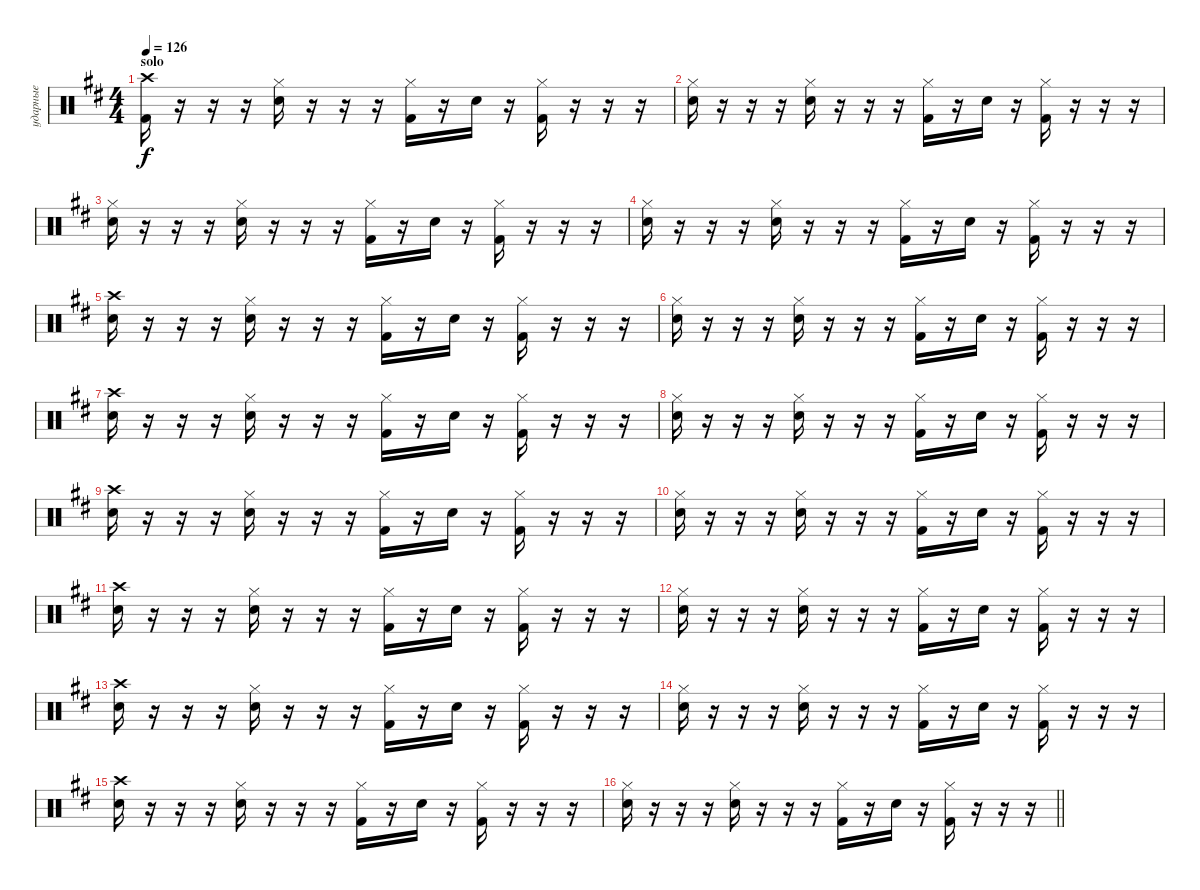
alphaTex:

\track ("ударные" "ударные") {instrument percussion}
\staff {score}
\articulation defaults
\ts (4 4)
\section ("" "solo")
\tempo 126
\clef neutral
\ks d
("Crash high (hit)" "Kick (hit) 2").16{dy f} r.16 r.16 r.16 ("Hi-Hat (closed)" "Electric Snare (hit)").16 r.16 r.16 r.16 ("Hi-Hat (closed)" "Kick (hit) 2").16 r.16 "Electric Snare (hit)".16 r.16 ("Hi-Hat (closed)" "Kick (hit) 2").16 r.16 r.16 r.16 |
("Hi-Hat (closed)" "Electric Snare (hit)").16 r.16 r.16 r.16 ("Hi-Hat (closed)" "Electric Snare (hit)").16 r.16 r.16 r.16 ("Hi-Hat (closed)" "Kick (hit) 2").16 r.16 "Electric Snare (hit)".16 r.16 ("Hi-Hat (closed)" "Kick (hit) 2").16 r.16 r.16 r.16 |
("Hi-Hat (closed)" "Electric Snare (hit)").16 r.16 r.16 r.16 ("Hi-Hat (closed)" "Electric Snare (hit)").16 r.16 r.16 r.16 ("Hi-Hat (closed)" "Kick (hit) 2").16 r.16 "Electric Snare (hit)".16 r.16 ("Hi-Hat (closed)" "Kick (hit) 2").16 r.16 r.16 r.16 |
("Hi-Hat (closed)" "Electric Snare (hit)").16 r.16 r.16 r.16 ("Hi-Hat (closed)" "Electric Snare (hit)").16 r.16 r.16 r.16 ("Hi-Hat (closed)" "Kick (hit) 2").16 r.16 "Electric Snare (hit)".16 r.16 ("Hi-Hat (closed)" "Kick (hit) 2").16 r.16 r.16 r.16 |
("Crash high (hit)" "Electric Snare (hit)").16 r.16 r.16 r.16 ("Hi-Hat (closed)" "Electric Snare (hit)").16 r.16 r.16 r.16 ("Hi-Hat (closed)" "Kick (hit) 2").16 r.16 "Electric Snare (hit)".16 r.16 ("Hi-Hat (closed)" "Kick (hit) 2").16 r.16 r.16 r.16 |
("Hi-Hat (closed)" "Electric Snare (hit)").16 r.16 r.16 r.16 ("Hi-Hat (closed)" "Electric Snare (hit)").16 r.16 r.16 r.16 ("Hi-Hat (closed)" "Kick (hit) 2").16 r.16 "Electric Snare (hit)".16 r.16 ("Hi-Hat (closed)" "Kick (hit) 2").16 r.16 r.16 r.16 |
("Crash high (hit)" "Electric Snare (hit)").16 r.16 r.16 r.16 ("Hi-Hat (closed)" "Electric Snare (hit)").16 r.16 r.16 r.16 ("Hi-Hat (closed)" "Kick (hit) 2").16 r.16 "Electric Snare (hit)".16 r.16 ("Hi-Hat (closed)" "Kick (hit) 2").16 r.16 r.16 r.16 |
("Hi-Hat (closed)" "Electric Snare (hit)").16 r.16 r.16 r.16 ("Hi-Hat (closed)" "Electric Snare (hit)").16 r.16 r.16 r.16 ("Hi-Hat (closed)" "Kick (hit) 2").16 r.16 "Electric Snare (hit)".16 r.16 ("Hi-Hat (closed)" "Kick (hit) 2").16 r.16 r.16 r.16 |
("Crash high (hit)" "Electric Snare (hit)").16 r.16 r.16 r.16 ("Hi-Hat (closed)" "Electric Snare (hit)").16 r.16 r.16 r.16 ("Hi-Hat (closed)" "Kick (hit) 2").16 r.16 "Electric Snare (hit)".16 r.16 ("Hi-Hat (closed)" "Kick (hit) 2").16 r.16 r.16 r.16 |
("Hi-Hat (closed)" "Electric Snare (hit)").16 r.16 r.16 r.16 ("Hi-Hat (closed)" "Electric Snare (hit)").16 r.16 r.16 r.16 ("Hi-Hat (closed)" "Kick (hit) 2").16 r.16 "Electric Snare (hit)".16 r.16 ("Hi-Hat (closed)" "Kick (hit) 2").16 r.16 r.16 r.16 |
("Crash high (hit)" "Electric Snare (hit)").16 r.16 r.16 r.16 ("Hi-Hat (closed)" "Electric Snare (hit)").16 r.16 r.16 r.16 ("Hi-Hat (closed)" "Kick (hit) 2").16 r.16 "Electric Snare (hit)".16 r.16 ("Hi-Hat (closed)" "Kick (hit) 2").16 r.16 r.16 r.16 |
("Hi-Hat (closed)" "Electric Snare (hit)").16 r.16 r.16 r.16 ("Hi-Hat (closed)" "Electric Snare (hit)").16 r.16 r.16 r.16 ("Hi-Hat (closed)" "Kick (hit) 2").16 r.16 "Electric Snare (hit)".16 r.16 ("Hi-Hat (closed)" "Kick (hit) 2").16 r.16 r.16 r.16 |
("Crash high (hit)" "Electric Snare (hit)").16 r.16 r.16 r.16 ("Hi-Hat (closed)" "Electric Snare (hit)").16 r.16 r.16 r.16 ("Hi-Hat (closed)" "Kick (hit) 2").16 r.16 "Electric Snare (hit)".16 r.16 ("Hi-Hat (closed)" "Kick (hit) 2").16 r.16 r.16 r.16 |
("Hi-Hat (closed)" "Electric Snare (hit)").16 r.16 r.16 r.16 ("Hi-Hat (closed)" "Electric Snare (hit)").16 r.16 r.16 r.16 ("Hi-Hat (closed)" "Kick (hit) 2").16 r.16 "Electric Snare (hit)".16 r.16 ("Hi-Hat (closed)" "Kick (hit) 2").16 r.16 r.16 r.16 |
("Crash high (hit)" "Electric Snare (hit)").16 r.16 r.16 r.16 ("Hi-Hat (closed)" "Electric Snare (hit)").16 r.16 r.16 r.16 ("Hi-Hat (closed)" "Kick (hit) 2").16 r.16 "Electric Snare (hit)".16 r.16 ("Hi-Hat (closed)" "Kick (hit) 2").16 r.16 r.16 r.16 |
\barLineRight lightlight
("Hi-Hat (closed)" "Electric Snare (hit)").16 r.16 r.16 r.16 ("Hi-Hat (closed)" "Electric Snare (hit)").16 r.16 r.16 r.16 ("Hi-Hat (closed)" "Kick (hit) 2").16 r.16 "Electric Snare (hit)".16 r.16 ("Hi-Hat (closed)" "Kick (hit) 2").16 r.16 r.16 r.16
